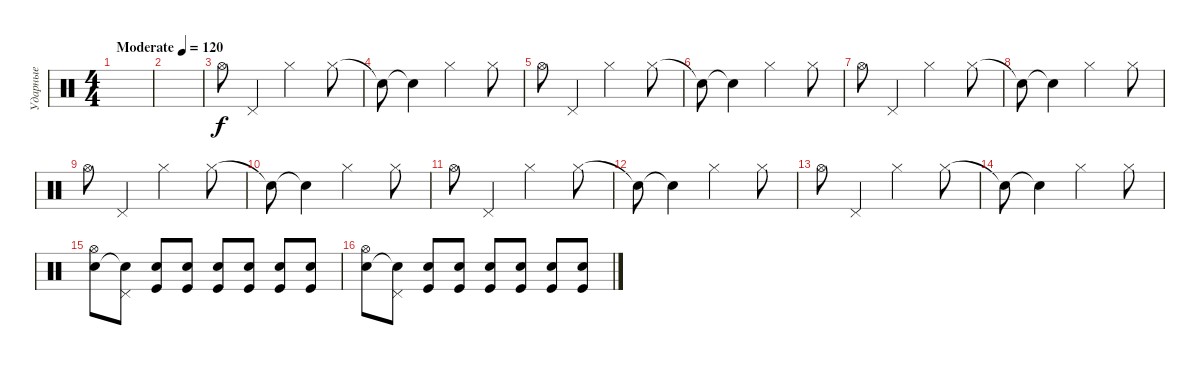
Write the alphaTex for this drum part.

\track ("Ударные" "Ударные") {instrument percussion}
\staff {score}
\articulation defaults
\ts (4 4)
\tempo (120 "Moderate")
\clef neutral
\ks c
|
|
"Hi-Hat (open)".8 "Pedal Hi-Hat (hit)".4 "Hi-Hat (closed)".2 "Hi-Hat (closed)".8 |
"Snare (hit)"{t}.8 "Snare (hit)"{t}.4 "Hi-Hat (closed)".2 "Hi-Hat (closed)".8 |
"Hi-Hat (open)".8 "Pedal Hi-Hat (hit)".4 "Hi-Hat (closed)".2 "Hi-Hat (closed)".8 |
"Snare (hit)"{t}.8 "Snare (hit)"{t}.4 "Hi-Hat (closed)".2 "Hi-Hat (closed)".8 |
"Hi-Hat (open)".8 "Pedal Hi-Hat (hit)".4 "Hi-Hat (closed)".2 "Hi-Hat (closed)".8 |
"Snare (hit)"{t}.8 "Snare (hit)"{t}.4 "Hi-Hat (closed)".2 "Hi-Hat (closed)".8 |
"Hi-Hat (open)".8 "Pedal Hi-Hat (hit)".4 "Hi-Hat (closed)".2 "Hi-Hat (closed)".8 |
"Snare (hit)"{t}.8 "Snare (hit)"{t}.4 "Hi-Hat (closed)".2 "Hi-Hat (closed)".8 |
"Hi-Hat (open)".8 "Pedal Hi-Hat (hit)".4 "Hi-Hat (closed)".2 "Hi-Hat (closed)".8 |
"Snare (hit)"{t}.8 "Snare (hit)"{t}.4 "Hi-Hat (closed)".2 "Hi-Hat (closed)".8 |
"Hi-Hat (open)".8 "Pedal Hi-Hat (hit)".4 "Hi-Hat (closed)".2 "Hi-Hat (closed)".8 |
"Snare (hit)"{t}.8 "Snare (hit)"{t}.4 "Hi-Hat (closed)".2 "Hi-Hat (closed)".8 |
("Hi-Hat (open)" "Electric Snare (hit)").8 ("Pedal Hi-Hat (hit)" "Snare (hit)"{t}).8 ("Electric Snare (hit)" "Kick (hit)").8{volume 11} ("Electric Snare (hit)" "Kick (hit)").8{volume 9} ("Electric Snare (hit)" "Kick (hit)").8{volume 8} ("Electric Snare (hit)" "Kick (hit)").8{volume 7} ("Electric Snare (hit)" "Kick (hit)").8{volume 6} ("Electric Snare (hit)" "Kick (hit)").8{volume 5} |
("Hi-Hat (open)" "Electric Snare (hit)").8{volume 13} ("Pedal Hi-Hat (hit)" "Snare (hit)"{t}).8 ("Electric Snare (hit)" "Kick (hit)").8{volume 11} ("Electric Snare (hit)" "Kick (hit)").8{volume 9} ("Electric Snare (hit)" "Kick (hit)").8{volume 8} ("Electric Snare (hit)" "Kick (hit)").8{volume 7} ("Electric Snare (hit)" "Kick (hit)").8{volume 6} ("Electric Snare (hit)" "Kick (hit)").8{volume 5}
